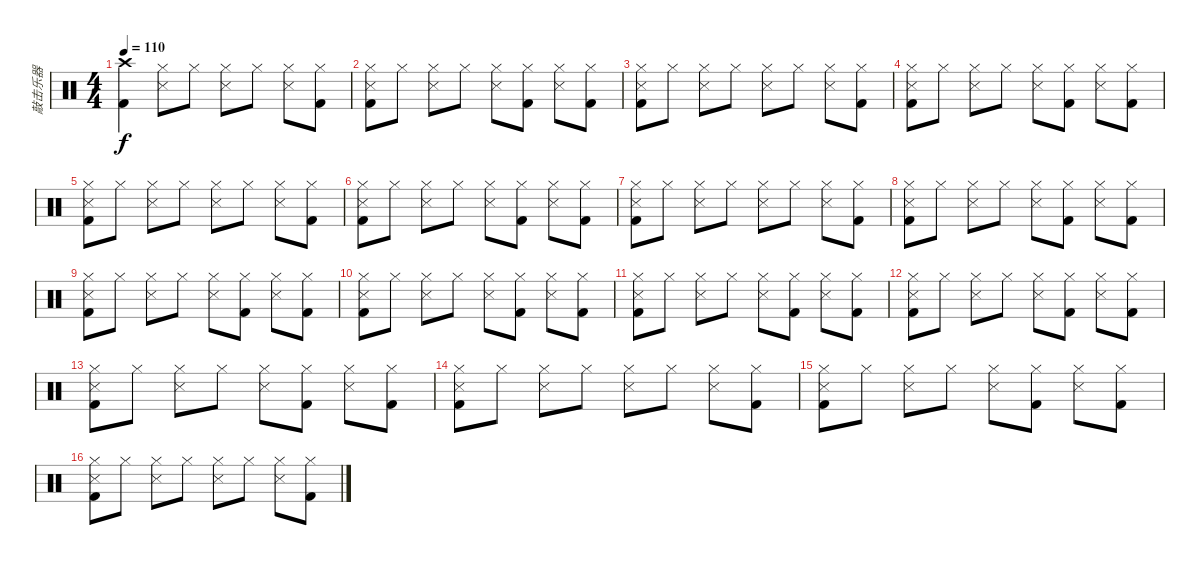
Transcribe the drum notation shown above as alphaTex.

\track ("敲击乐器" "敲击乐器") {instrument percussion}
\staff {score}
\articulation defaults
\ts (4 4)
\tempo 110
\clef neutral
\ks c
("Crash high (hit)" "Kick (hit) 2").4{dy f} ("Hi-Hat (closed)" "Metronome (hit)").8 "Hi-Hat (closed)".8 ("Hi-Hat (closed)" "Metronome (hit)").8 "Hi-Hat (closed)".8 ("Hi-Hat (closed)" "Metronome (hit)").8 ("Hi-Hat (closed)" "Kick (hit) 2").8 |
("Hi-Hat (closed)" "Metronome (hit)" "Kick (hit) 2").8 "Hi-Hat (closed)".8 ("Hi-Hat (closed)" "Metronome (hit)").8 "Hi-Hat (closed)".8 ("Hi-Hat (closed)" "Metronome (hit)").8 ("Hi-Hat (closed)" "Kick (hit) 2").8 ("Hi-Hat (closed)" "Metronome (hit)").8 ("Hi-Hat (closed)" "Kick (hit) 2").8 |
("Hi-Hat (closed)" "Metronome (hit)" "Kick (hit) 2").8 "Hi-Hat (closed)".8 ("Hi-Hat (closed)" "Metronome (hit)").8 "Hi-Hat (closed)".8 ("Hi-Hat (closed)" "Metronome (hit)").8 "Hi-Hat (closed)".8 ("Hi-Hat (closed)" "Metronome (hit)").8 ("Hi-Hat (closed)" "Kick (hit) 2").8 |
("Hi-Hat (closed)" "Metronome (hit)" "Kick (hit) 2").8 "Hi-Hat (closed)".8 ("Hi-Hat (closed)" "Metronome (hit)").8 "Hi-Hat (closed)".8 ("Hi-Hat (closed)" "Metronome (hit)").8 ("Hi-Hat (closed)" "Kick (hit) 2").8 ("Hi-Hat (closed)" "Metronome (hit)").8 ("Hi-Hat (closed)" "Kick (hit) 2").8 |
("Hi-Hat (closed)" "Metronome (hit)" "Kick (hit) 2").8 "Hi-Hat (closed)".8 ("Hi-Hat (closed)" "Metronome (hit)").8 "Hi-Hat (closed)".8 ("Hi-Hat (closed)" "Metronome (hit)").8 "Hi-Hat (closed)".8 ("Hi-Hat (closed)" "Metronome (hit)").8 ("Hi-Hat (closed)" "Kick (hit) 2").8 |
("Hi-Hat (closed)" "Metronome (hit)" "Kick (hit) 2").8 "Hi-Hat (closed)".8 ("Hi-Hat (closed)" "Metronome (hit)").8 "Hi-Hat (closed)".8 ("Hi-Hat (closed)" "Metronome (hit)").8 ("Hi-Hat (closed)" "Kick (hit) 2").8 ("Hi-Hat (closed)" "Metronome (hit)").8 ("Hi-Hat (closed)" "Kick (hit) 2").8 |
("Hi-Hat (closed)" "Metronome (hit)" "Kick (hit) 2").8 "Hi-Hat (closed)".8 ("Hi-Hat (closed)" "Metronome (hit)").8 "Hi-Hat (closed)".8 ("Hi-Hat (closed)" "Metronome (hit)").8 "Hi-Hat (closed)".8 ("Hi-Hat (closed)" "Metronome (hit)").8 ("Hi-Hat (closed)" "Kick (hit) 2").8 |
("Hi-Hat (closed)" "Metronome (hit)" "Kick (hit) 2").8 "Hi-Hat (closed)".8 ("Hi-Hat (closed)" "Metronome (hit)").8 "Hi-Hat (closed)".8 ("Hi-Hat (closed)" "Metronome (hit)").8 ("Hi-Hat (closed)" "Kick (hit) 2").8 ("Hi-Hat (closed)" "Metronome (hit)").8 ("Hi-Hat (closed)" "Kick (hit) 2").8 |
("Hi-Hat (closed)" "Metronome (hit)" "Kick (hit) 2").8 "Hi-Hat (closed)".8 ("Hi-Hat (closed)" "Metronome (hit)").8 "Hi-Hat (closed)".8 ("Hi-Hat (closed)" "Metronome (hit)").8 ("Hi-Hat (closed)" "Kick (hit) 2").8 ("Hi-Hat (closed)" "Metronome (hit)").8 ("Hi-Hat (closed)" "Kick (hit) 2").8 |
("Hi-Hat (closed)" "Metronome (hit)" "Kick (hit) 2").8 "Hi-Hat (closed)".8 ("Hi-Hat (closed)" "Metronome (hit)").8 "Hi-Hat (closed)".8 ("Hi-Hat (closed)" "Metronome (hit)").8 ("Hi-Hat (closed)" "Kick (hit) 2").8 ("Hi-Hat (closed)" "Metronome (hit)").8 ("Hi-Hat (closed)" "Kick (hit) 2").8 |
("Hi-Hat (closed)" "Metronome (hit)" "Kick (hit) 2").8 "Hi-Hat (closed)".8 ("Hi-Hat (closed)" "Metronome (hit)").8 "Hi-Hat (closed)".8 ("Hi-Hat (closed)" "Metronome (hit)").8 ("Hi-Hat (closed)" "Kick (hit) 2").8 ("Hi-Hat (closed)" "Metronome (hit)").8 ("Hi-Hat (closed)" "Kick (hit) 2").8 |
("Hi-Hat (closed)" "Metronome (hit)" "Kick (hit) 2").8 "Hi-Hat (closed)".8 ("Hi-Hat (closed)" "Metronome (hit)").8 "Hi-Hat (closed)".8 ("Hi-Hat (closed)" "Metronome (hit)").8 ("Hi-Hat (closed)" "Kick (hit) 2").8 ("Hi-Hat (closed)" "Metronome (hit)").8 ("Hi-Hat (closed)" "Kick (hit) 2").8 |
("Hi-Hat (closed)" "Metronome (hit)" "Kick (hit) 2").8 "Hi-Hat (closed)".8 ("Hi-Hat (closed)" "Metronome (hit)").8 "Hi-Hat (closed)".8 ("Hi-Hat (closed)" "Metronome (hit)").8 ("Hi-Hat (closed)" "Kick (hit) 2").8 ("Hi-Hat (closed)" "Metronome (hit)").8 ("Hi-Hat (closed)" "Kick (hit) 2").8 |
("Hi-Hat (closed)" "Metronome (hit)" "Kick (hit) 2").8 "Hi-Hat (closed)".8 ("Hi-Hat (closed)" "Metronome (hit)").8 "Hi-Hat (closed)".8 ("Hi-Hat (closed)" "Metronome (hit)").8 "Hi-Hat (closed)".8 ("Hi-Hat (closed)" "Metronome (hit)").8 ("Hi-Hat (closed)" "Kick (hit) 2").8 |
("Hi-Hat (closed)" "Metronome (hit)" "Kick (hit) 2").8 "Hi-Hat (closed)".8 ("Hi-Hat (closed)" "Metronome (hit)").8 "Hi-Hat (closed)".8 ("Hi-Hat (closed)" "Metronome (hit)").8 ("Hi-Hat (closed)" "Kick (hit) 2").8 ("Hi-Hat (closed)" "Metronome (hit)").8 ("Hi-Hat (closed)" "Kick (hit) 2").8 |
("Hi-Hat (closed)" "Metronome (hit)" "Kick (hit) 2").8 "Hi-Hat (closed)".8 ("Hi-Hat (closed)" "Metronome (hit)").8 "Hi-Hat (closed)".8 ("Hi-Hat (closed)" "Metronome (hit)").8 "Hi-Hat (closed)".8 ("Hi-Hat (closed)" "Metronome (hit)").8 ("Hi-Hat (closed)" "Kick (hit) 2").8
